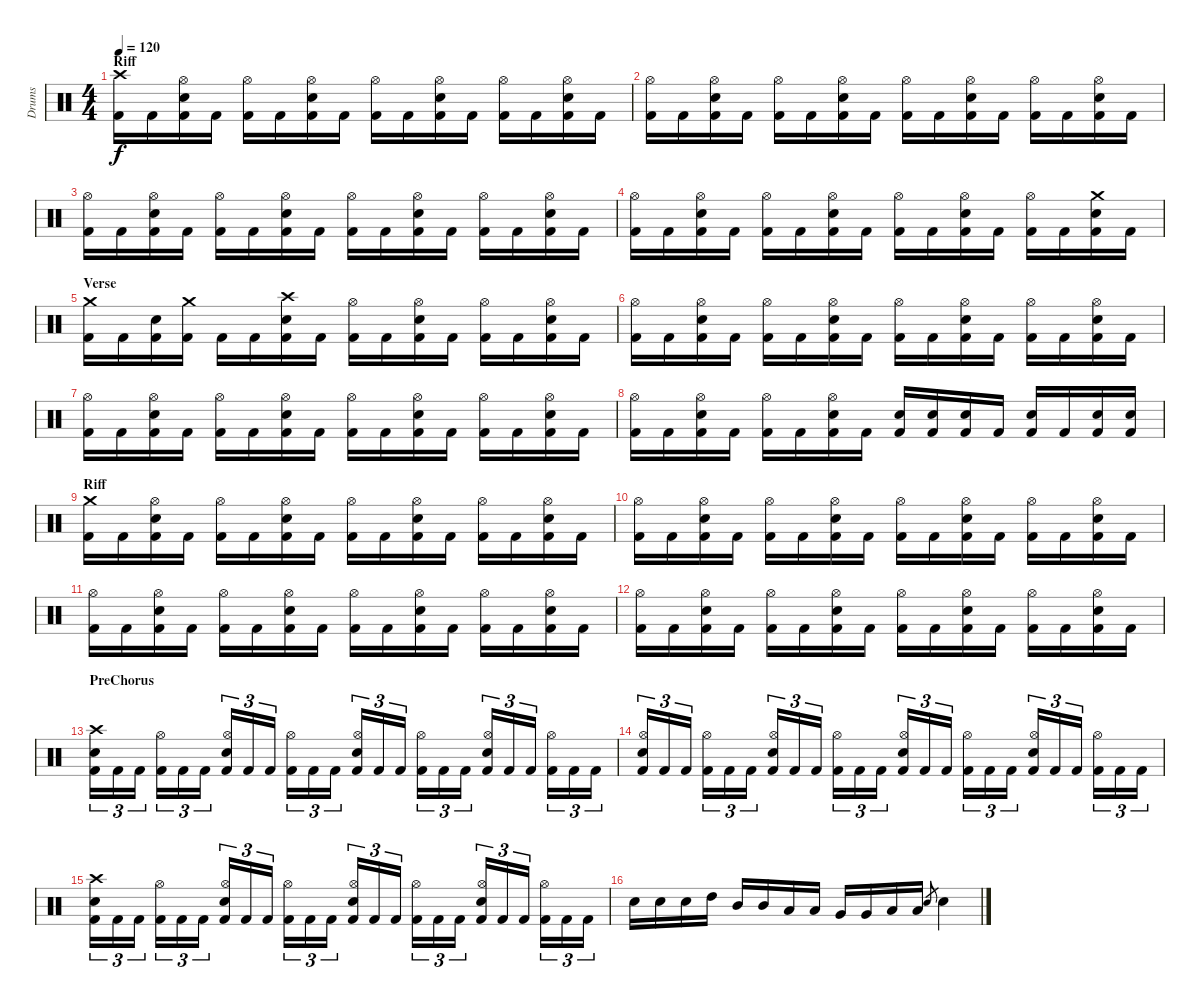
\track ("Drums" "Drums") {instrument percussion}
\staff {score}
\articulation defaults
\ts (4 4)
\section ("" "Riff")
\tempo 120
\clef neutral
\ks c
("Crash high (hit)" "Kick (hit) 2").16{dy f} "Kick (hit) 2".16 ("Hi-Hat (open)" "Snare (hit) 2" "Kick (hit) 2").16 "Kick (hit) 2".16 ("Hi-Hat (open)" "Kick (hit) 2").16 "Kick (hit) 2".16 ("Hi-Hat (open)" "Snare (hit) 2" "Kick (hit) 2").16 "Kick (hit) 2".16 ("Hi-Hat (open)" "Kick (hit) 2").16 "Kick (hit) 2".16 ("Hi-Hat (open)" "Snare (hit) 2" "Kick (hit) 2").16 "Kick (hit) 2".16 ("Hi-Hat (open)" "Kick (hit) 2").16 "Kick (hit) 2".16 ("Hi-Hat (open)" "Snare (hit) 2" "Kick (hit) 2").16 "Kick (hit) 2".16 |
("Hi-Hat (open)" "Kick (hit) 2").16 "Kick (hit) 2".16 ("Hi-Hat (open)" "Snare (hit) 2" "Kick (hit) 2").16 "Kick (hit) 2".16 ("Hi-Hat (open)" "Kick (hit) 2").16 "Kick (hit) 2".16 ("Hi-Hat (open)" "Snare (hit) 2" "Kick (hit) 2").16 "Kick (hit) 2".16 ("Hi-Hat (open)" "Kick (hit) 2").16 "Kick (hit) 2".16 ("Hi-Hat (open)" "Snare (hit) 2" "Kick (hit) 2").16 "Kick (hit) 2".16 ("Hi-Hat (open)" "Kick (hit) 2").16 "Kick (hit) 2".16 ("Hi-Hat (open)" "Snare (hit) 2" "Kick (hit) 2").16 "Kick (hit) 2".16 |
("Hi-Hat (open)" "Kick (hit) 2").16 "Kick (hit) 2".16 ("Hi-Hat (open)" "Snare (hit) 2" "Kick (hit) 2").16 "Kick (hit) 2".16 ("Hi-Hat (open)" "Kick (hit) 2").16 "Kick (hit) 2".16 ("Hi-Hat (open)" "Snare (hit) 2" "Kick (hit) 2").16 "Kick (hit) 2".16 ("Hi-Hat (open)" "Kick (hit) 2").16 "Kick (hit) 2".16 ("Hi-Hat (open)" "Snare (hit) 2" "Kick (hit) 2").16 "Kick (hit) 2".16 ("Hi-Hat (open)" "Kick (hit) 2").16 "Kick (hit) 2".16 ("Hi-Hat (open)" "Snare (hit) 2" "Kick (hit) 2").16 "Kick (hit) 2".16 |
("Hi-Hat (open)" "Kick (hit) 2").16 "Kick (hit) 2".16 ("Hi-Hat (open)" "Snare (hit) 2" "Kick (hit) 2").16 "Kick (hit) 2".16 ("Hi-Hat (open)" "Kick (hit) 2").16 "Kick (hit) 2".16 ("Hi-Hat (open)" "Snare (hit) 2" "Kick (hit) 2").16 "Kick (hit) 2".16 ("Hi-Hat (open)" "Kick (hit) 2").16 "Kick (hit) 2".16 ("Hi-Hat (open)" "Snare (hit) 2" "Kick (hit) 2").16 "Kick (hit) 2".16 ("Hi-Hat (open)" "Kick (hit) 2").16 "Kick (hit) 2".16 ("Crash medium (hit)" "Snare (hit) 2" "Kick (hit) 2").16 "Kick (hit) 2".16 |
\section ("" "Verse")
("Crash medium (hit)" "Kick (hit) 2").16 "Kick (hit) 2".16 ("Snare (hit) 2" "Kick (hit) 2").16 ("Crash medium (hit)" "Kick (hit) 2").16 "Kick (hit) 2".16 "Kick (hit) 2".16 ("Crash high (hit)" "Snare (hit) 2" "Kick (hit) 2").16 "Kick (hit) 2".16 ("Hi-Hat (open)" "Kick (hit) 2").16 "Kick (hit) 2".16 ("Hi-Hat (open)" "Snare (hit) 2" "Kick (hit) 2").16 "Kick (hit) 2".16 ("Hi-Hat (open)" "Kick (hit) 2").16 "Kick (hit) 2".16 ("Hi-Hat (open)" "Snare (hit) 2" "Kick (hit) 2").16 "Kick (hit) 2".16 |
("Hi-Hat (open)" "Kick (hit) 2").16 "Kick (hit) 2".16 ("Hi-Hat (open)" "Snare (hit) 2" "Kick (hit) 2").16 "Kick (hit) 2".16 ("Hi-Hat (open)" "Kick (hit) 2").16 "Kick (hit) 2".16 ("Hi-Hat (open)" "Snare (hit) 2" "Kick (hit) 2").16 "Kick (hit) 2".16 ("Hi-Hat (open)" "Kick (hit) 2").16 "Kick (hit) 2".16 ("Hi-Hat (open)" "Snare (hit) 2" "Kick (hit) 2").16 "Kick (hit) 2".16 ("Hi-Hat (open)" "Kick (hit) 2").16 "Kick (hit) 2".16 ("Hi-Hat (open)" "Snare (hit) 2" "Kick (hit) 2").16 "Kick (hit) 2".16 |
("Hi-Hat (open)" "Kick (hit) 2").16 "Kick (hit) 2".16 ("Hi-Hat (open)" "Snare (hit) 2" "Kick (hit) 2").16 "Kick (hit) 2".16 ("Hi-Hat (open)" "Kick (hit) 2").16 "Kick (hit) 2".16 ("Hi-Hat (open)" "Snare (hit) 2" "Kick (hit) 2").16 "Kick (hit) 2".16 ("Hi-Hat (open)" "Kick (hit) 2").16 "Kick (hit) 2".16 ("Hi-Hat (open)" "Snare (hit) 2" "Kick (hit) 2").16 "Kick (hit) 2".16 ("Hi-Hat (open)" "Kick (hit) 2").16 "Kick (hit) 2".16 ("Hi-Hat (open)" "Snare (hit) 2" "Kick (hit) 2").16 "Kick (hit) 2".16 |
("Hi-Hat (open)" "Kick (hit) 2").16 "Kick (hit) 2".16 ("Hi-Hat (open)" "Snare (hit) 2" "Kick (hit) 2").16 "Kick (hit) 2".16 ("Hi-Hat (open)" "Kick (hit) 2").16 "Kick (hit) 2".16 ("Hi-Hat (open)" "Snare (hit) 2" "Kick (hit) 2").16 "Kick (hit) 2".16 ("Snare (hit) 2" "Kick (hit) 2").16 ("Snare (hit) 2" "Kick (hit) 2").16 ("Snare (hit) 2" "Kick (hit) 2").16 "Kick (hit) 2".16 ("Snare (hit) 2" "Kick (hit) 2").16 "Kick (hit) 2".16 ("Snare (hit) 2" "Kick (hit) 2").16 ("Snare (hit) 2" "Kick (hit) 2").16 |
\section ("" "Riff")
("Crash medium (hit)" "Kick (hit) 2").16 "Kick (hit) 2".16 ("Hi-Hat (open)" "Snare (hit) 2" "Kick (hit) 2").16 "Kick (hit) 2".16 ("Hi-Hat (open)" "Kick (hit) 2").16 "Kick (hit) 2".16 ("Hi-Hat (open)" "Snare (hit) 2" "Kick (hit) 2").16 "Kick (hit) 2".16 ("Hi-Hat (open)" "Kick (hit) 2").16 "Kick (hit) 2".16 ("Hi-Hat (open)" "Snare (hit) 2" "Kick (hit) 2").16 "Kick (hit) 2".16 ("Hi-Hat (open)" "Kick (hit) 2").16 "Kick (hit) 2".16 ("Hi-Hat (open)" "Snare (hit) 2" "Kick (hit) 2").16 "Kick (hit) 2".16 |
("Hi-Hat (open)" "Kick (hit) 2").16 "Kick (hit) 2".16 ("Hi-Hat (open)" "Snare (hit) 2" "Kick (hit) 2").16 "Kick (hit) 2".16 ("Hi-Hat (open)" "Kick (hit) 2").16 "Kick (hit) 2".16 ("Hi-Hat (open)" "Snare (hit) 2" "Kick (hit) 2").16 "Kick (hit) 2".16 ("Hi-Hat (open)" "Kick (hit) 2").16 "Kick (hit) 2".16 ("Hi-Hat (open)" "Snare (hit) 2" "Kick (hit) 2").16 "Kick (hit) 2".16 ("Hi-Hat (open)" "Kick (hit) 2").16 "Kick (hit) 2".16 ("Hi-Hat (open)" "Snare (hit) 2" "Kick (hit) 2").16 "Kick (hit) 2".16 |
("Hi-Hat (open)" "Kick (hit) 2").16 "Kick (hit) 2".16 ("Hi-Hat (open)" "Snare (hit) 2" "Kick (hit) 2").16 "Kick (hit) 2".16 ("Hi-Hat (open)" "Kick (hit) 2").16 "Kick (hit) 2".16 ("Hi-Hat (open)" "Snare (hit) 2" "Kick (hit) 2").16 "Kick (hit) 2".16 ("Hi-Hat (open)" "Kick (hit) 2").16 "Kick (hit) 2".16 ("Hi-Hat (open)" "Snare (hit) 2" "Kick (hit) 2").16 "Kick (hit) 2".16 ("Hi-Hat (open)" "Kick (hit) 2").16 "Kick (hit) 2".16 ("Hi-Hat (open)" "Snare (hit) 2" "Kick (hit) 2").16 "Kick (hit) 2".16 |
("Hi-Hat (open)" "Kick (hit) 2").16 "Kick (hit) 2".16 ("Hi-Hat (open)" "Snare (hit) 2" "Kick (hit) 2").16 "Kick (hit) 2".16 ("Hi-Hat (open)" "Kick (hit) 2").16 "Kick (hit) 2".16 ("Hi-Hat (open)" "Snare (hit) 2" "Kick (hit) 2").16 "Kick (hit) 2".16 ("Hi-Hat (open)" "Kick (hit) 2").16 "Kick (hit) 2".16 ("Hi-Hat (open)" "Snare (hit) 2" "Kick (hit) 2").16 "Kick (hit) 2".16 ("Hi-Hat (open)" "Kick (hit) 2").16 "Kick (hit) 2".16 ("Hi-Hat (open)" "Snare (hit) 2" "Kick (hit) 2").16 "Kick (hit) 2".16 |
\section ("" "PreChorus")
("Crash high (hit)" "Snare (hit) 2" "Kick (hit) 2").16{tu (3 2)} "Kick (hit) 2".16{tu (3 2)} "Kick (hit) 2".16{tu (3 2)} ("Hi-Hat (open)" "Kick (hit) 2").16{tu (3 2)} "Kick (hit) 2".16{tu (3 2)} "Kick (hit) 2".16{tu (3 2)} ("Hi-Hat (open)" "Snare (hit) 2" "Kick (hit) 2").16{tu (3 2)} "Kick (hit) 2".16{tu (3 2)} "Kick (hit) 2".16{tu (3 2)} ("Hi-Hat (open)" "Kick (hit) 2").16{tu (3 2)} "Kick (hit) 2".16{tu (3 2)} "Kick (hit) 2".16{tu (3 2)} ("Hi-Hat (open)" "Snare (hit) 2" "Kick (hit) 2").16{tu (3 2)} "Kick (hit) 2".16{tu (3 2)} "Kick (hit) 2".16{tu (3 2)} ("Hi-Hat (open)" "Kick (hit) 2").16{tu (3 2)} "Kick (hit) 2".16{tu (3 2)} "Kick (hit) 2".16{tu (3 2)} ("Hi-Hat (open)" "Snare (hit) 2" "Kick (hit) 2").16{tu (3 2)} "Kick (hit) 2".16{tu (3 2)} "Kick (hit) 2".16{tu (3 2)} ("Hi-Hat (open)" "Kick (hit) 2").16{tu (3 2)} "Kick (hit) 2".16{tu (3 2)} "Kick (hit) 2".16{tu (3 2)} |
("Hi-Hat (open)" "Snare (hit) 2" "Kick (hit) 2").16{tu (3 2)} "Kick (hit) 2".16{tu (3 2)} "Kick (hit) 2".16{tu (3 2)} ("Hi-Hat (open)" "Kick (hit) 2").16{tu (3 2)} "Kick (hit) 2".16{tu (3 2)} "Kick (hit) 2".16{tu (3 2)} ("Hi-Hat (open)" "Snare (hit) 2" "Kick (hit) 2").16{tu (3 2)} "Kick (hit) 2".16{tu (3 2)} "Kick (hit) 2".16{tu (3 2)} ("Hi-Hat (open)" "Kick (hit) 2").16{tu (3 2)} "Kick (hit) 2".16{tu (3 2)} "Kick (hit) 2".16{tu (3 2)} ("Hi-Hat (open)" "Snare (hit) 2" "Kick (hit) 2").16{tu (3 2)} "Kick (hit) 2".16{tu (3 2)} "Kick (hit) 2".16{tu (3 2)} ("Hi-Hat (open)" "Kick (hit) 2").16{tu (3 2)} "Kick (hit) 2".16{tu (3 2)} "Kick (hit) 2".16{tu (3 2)} ("Hi-Hat (open)" "Snare (hit) 2" "Kick (hit) 2").16{tu (3 2)} "Kick (hit) 2".16{tu (3 2)} "Kick (hit) 2".16{tu (3 2)} ("Hi-Hat (open)" "Kick (hit) 2").16{tu (3 2)} "Kick (hit) 2".16{tu (3 2)} "Kick (hit) 2".16{tu (3 2)} |
("Crash high (hit)" "Snare (hit) 2" "Kick (hit) 2").16{tu (3 2)} "Kick (hit) 2".16{tu (3 2)} "Kick (hit) 2".16{tu (3 2)} ("Hi-Hat (open)" "Kick (hit) 2").16{tu (3 2)} "Kick (hit) 2".16{tu (3 2)} "Kick (hit) 2".16{tu (3 2)} ("Hi-Hat (open)" "Snare (hit) 2" "Kick (hit) 2").16{tu (3 2)} "Kick (hit) 2".16{tu (3 2)} "Kick (hit) 2".16{tu (3 2)} ("Hi-Hat (open)" "Kick (hit) 2").16{tu (3 2)} "Kick (hit) 2".16{tu (3 2)} "Kick (hit) 2".16{tu (3 2)} ("Hi-Hat (open)" "Snare (hit) 2" "Kick (hit) 2").16{tu (3 2)} "Kick (hit) 2".16{tu (3 2)} "Kick (hit) 2".16{tu (3 2)} ("Hi-Hat (open)" "Kick (hit) 2").16{tu (3 2)} "Kick (hit) 2".16{tu (3 2)} "Kick (hit) 2".16{tu (3 2)} ("Hi-Hat (open)" "Snare (hit) 2" "Kick (hit) 2").16{tu (3 2)} "Kick (hit) 2".16{tu (3 2)} "Kick (hit) 2".16{tu (3 2)} ("Hi-Hat (open)" "Kick (hit) 2").16{tu (3 2)} "Kick (hit) 2".16{tu (3 2)} "Kick (hit) 2".16{tu (3 2)} |
"Snare (hit) 2".16 "Snare (hit) 2".16 "Snare (hit) 2".16 "High Tom (hit)".16 "Mid Tom (hit)".16 "Mid Tom (hit)".16 "Low Tom (hit)".16 "Low Tom (hit)".16 "Very Low Tom (hit)".16 "Very Low Tom (hit)".16 "Low Floor Tom (hit)".16 "Low Floor Tom (hit)".16 "Snare (hit) 2".8{gr} "Snare (hit) 2".4
